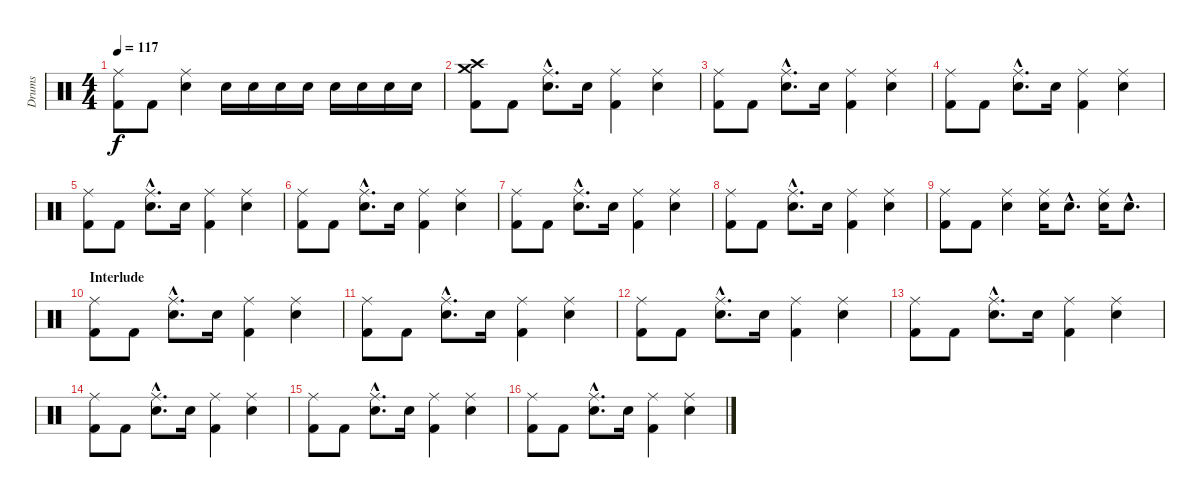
\track ("Drums" "Drums") {instrument percussion}
\staff {score}
\articulation defaults
\ts (4 4)
\tempo 117
\clef neutral
\ks c
("Ride (middle)" "Kick (hit) 2").8{dy f} "Kick (hit) 2".8 ("Ride (middle)" "Electric Snare (hit)").4 "Electric Snare (hit)".16 "Electric Snare (hit)".16 "Electric Snare (hit)".16 "Electric Snare (hit)".16 "Electric Snare (hit)".16 "Electric Snare (hit)".16 "Electric Snare (hit)".16 "Electric Snare (hit)".16 |
("Crash medium (hit)" "Crash high (hit)" "Kick (hit) 2").8 "Kick (hit) 2".8 ("Ride (middle)"{hac} "Electric Snare (hit)"{hac}).8{d} "Electric Snare (hit)".16 ("Ride (middle)" "Kick (hit) 2").4 ("Ride (middle)" "Electric Snare (hit)").4 |
("Ride (middle)" "Kick (hit) 2").8 "Kick (hit) 2".8 ("Ride (middle)"{hac} "Electric Snare (hit)"{hac}).8{d} "Electric Snare (hit)".16 ("Ride (middle)" "Kick (hit) 2").4 ("Ride (middle)" "Electric Snare (hit)").4 |
("Ride (middle)" "Kick (hit) 2").8 "Kick (hit) 2".8 ("Ride (middle)"{hac} "Electric Snare (hit)"{hac}).8{d} "Electric Snare (hit)".16 ("Ride (middle)" "Kick (hit) 2").4 ("Ride (middle)" "Electric Snare (hit)").4 |
("Ride (middle)" "Kick (hit) 2").8 "Kick (hit) 2".8 ("Ride (middle)"{hac} "Electric Snare (hit)"{hac}).8{d} "Electric Snare (hit)".16 ("Ride (middle)" "Kick (hit) 2").4 ("Ride (middle)" "Electric Snare (hit)").4 |
("Ride (middle)" "Kick (hit) 2").8 "Kick (hit) 2".8 ("Ride (middle)"{hac} "Electric Snare (hit)"{hac}).8{d} "Electric Snare (hit)".16 ("Ride (middle)" "Kick (hit) 2").4 ("Ride (middle)" "Electric Snare (hit)").4 |
("Ride (middle)" "Kick (hit) 2").8 "Kick (hit) 2".8 ("Ride (middle)"{hac} "Electric Snare (hit)"{hac}).8{d} "Electric Snare (hit)".16 ("Ride (middle)" "Kick (hit) 2").4 ("Ride (middle)" "Electric Snare (hit)").4 |
("Ride (middle)" "Kick (hit) 2").8 "Kick (hit) 2".8 ("Ride (middle)"{hac} "Electric Snare (hit)"{hac}).8{d} "Electric Snare (hit)".16 ("Ride (middle)" "Kick (hit) 2").4 ("Ride (middle)" "Electric Snare (hit)").4 |
("Ride (middle)" "Kick (hit) 2").8 "Kick (hit) 2".8 ("Ride (middle)" "Electric Snare (hit)").4 ("Ride (middle)" "Electric Snare (hit)").16 "Electric Snare (hit)"{hac}.8{d} ("Ride (middle)" "Electric Snare (hit)").16 "Electric Snare (hit)"{hac}.8{d} |
\section ("" "Interlude")
("Ride (middle)" "Kick (hit) 2").8 "Kick (hit) 2".8 ("Ride (middle)"{hac} "Electric Snare (hit)"{hac}).8{d} "Electric Snare (hit)".16 ("Ride (middle)" "Kick (hit) 2").4 ("Ride (middle)" "Electric Snare (hit)").4 |
("Ride (middle)" "Kick (hit) 2").8 "Kick (hit) 2".8 ("Ride (middle)"{hac} "Electric Snare (hit)"{hac}).8{d} "Electric Snare (hit)".16 ("Ride (middle)" "Kick (hit) 2").4 ("Ride (middle)" "Electric Snare (hit)").4 |
("Ride (middle)" "Kick (hit) 2").8 "Kick (hit) 2".8 ("Ride (middle)"{hac} "Electric Snare (hit)"{hac}).8{d} "Electric Snare (hit)".16 ("Ride (middle)" "Kick (hit) 2").4 ("Ride (middle)" "Electric Snare (hit)").4 |
("Ride (middle)" "Kick (hit) 2").8 "Kick (hit) 2".8 ("Ride (middle)"{hac} "Electric Snare (hit)"{hac}).8{d} "Electric Snare (hit)".16 ("Ride (middle)" "Kick (hit) 2").4 ("Ride (middle)" "Electric Snare (hit)").4 |
("Ride (middle)" "Kick (hit) 2").8 "Kick (hit) 2".8 ("Ride (middle)"{hac} "Electric Snare (hit)"{hac}).8{d} "Electric Snare (hit)".16 ("Ride (middle)" "Kick (hit) 2").4 ("Ride (middle)" "Electric Snare (hit)").4 |
("Ride (middle)" "Kick (hit) 2").8 "Kick (hit) 2".8 ("Ride (middle)"{hac} "Electric Snare (hit)"{hac}).8{d} "Electric Snare (hit)".16 ("Ride (middle)" "Kick (hit) 2").4 ("Ride (middle)" "Electric Snare (hit)").4 |
("Ride (middle)" "Kick (hit) 2").8 "Kick (hit) 2".8 ("Ride (middle)"{hac} "Electric Snare (hit)"{hac}).8{d} "Electric Snare (hit)".16 ("Ride (middle)" "Kick (hit) 2").4 ("Ride (middle)" "Electric Snare (hit)").4
